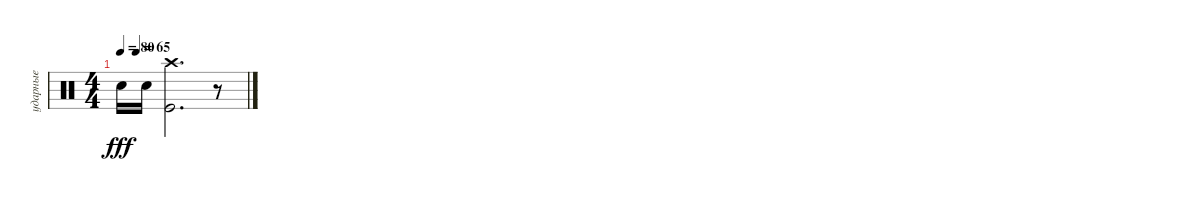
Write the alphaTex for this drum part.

\track ("ударные" "ударные") {instrument percussion}
\staff {score}
\articulation defaults
\ts (4 4)
\tempo 80
\tempo (65 0.125)
\clef neutral
\ks aminor "Snare (hit) 2".16{dy fff} "Snare (hit) 2".16
("Kick (hit)" "Crash high (hit)").2{d} r.8
